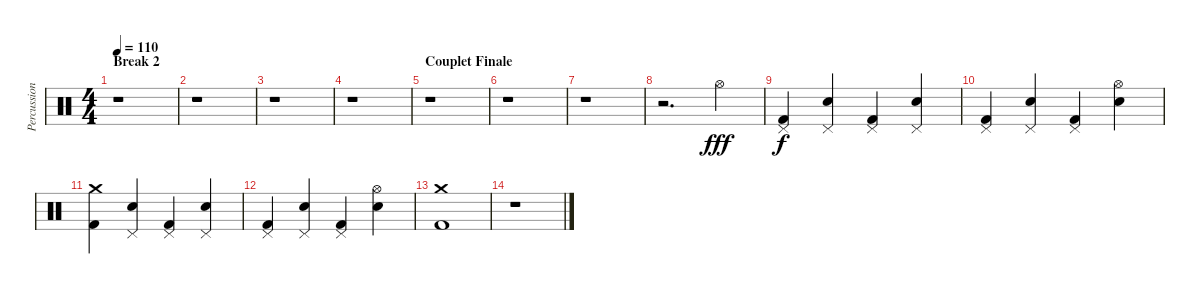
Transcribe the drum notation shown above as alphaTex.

\track ("Percussions" "Percussion") {instrument percussion}
\staff {score}
\articulation defaults
\ts (4 4)
\section ("" "Break 2")
\tempo 110
\clef neutral
\ks c
r.1{dy f} |
r.1 |
r.1 |
r.1 |
\section ("" "Couplet Finale")
r.1 |
r.1 |
r.1 |
r.2{d} "Hi-Hat (open)".4{dy fff} |
("Pedal Hi-Hat (hit)" "Kick (hit) 2").4{dy f} ("Pedal Hi-Hat (hit)" "Electric Snare (hit)").4 ("Pedal Hi-Hat (hit)" "Kick (hit) 2").4 ("Pedal Hi-Hat (hit)" "Electric Snare (hit)").4 |
("Pedal Hi-Hat (hit)" "Kick (hit) 2").4 ("Pedal Hi-Hat (hit)" "Electric Snare (hit)").4 ("Pedal Hi-Hat (hit)" "Kick (hit) 2").4 ("Hi-Hat (open)" "Electric Snare (hit)").4 |
("Crash medium (hit)" "Kick (hit) 2").4 ("Pedal Hi-Hat (hit)" "Electric Snare (hit)").4 ("Pedal Hi-Hat (hit)" "Kick (hit) 2").4 ("Pedal Hi-Hat (hit)" "Electric Snare (hit)").4 |
("Pedal Hi-Hat (hit)" "Kick (hit) 2").4 ("Pedal Hi-Hat (hit)" "Electric Snare (hit)").4 ("Pedal Hi-Hat (hit)" "Kick (hit) 2").4 ("Hi-Hat (open)" "Electric Snare (hit)").4 |
("Crash medium (hit)" "Kick (hit) 2").1 |
r.1
